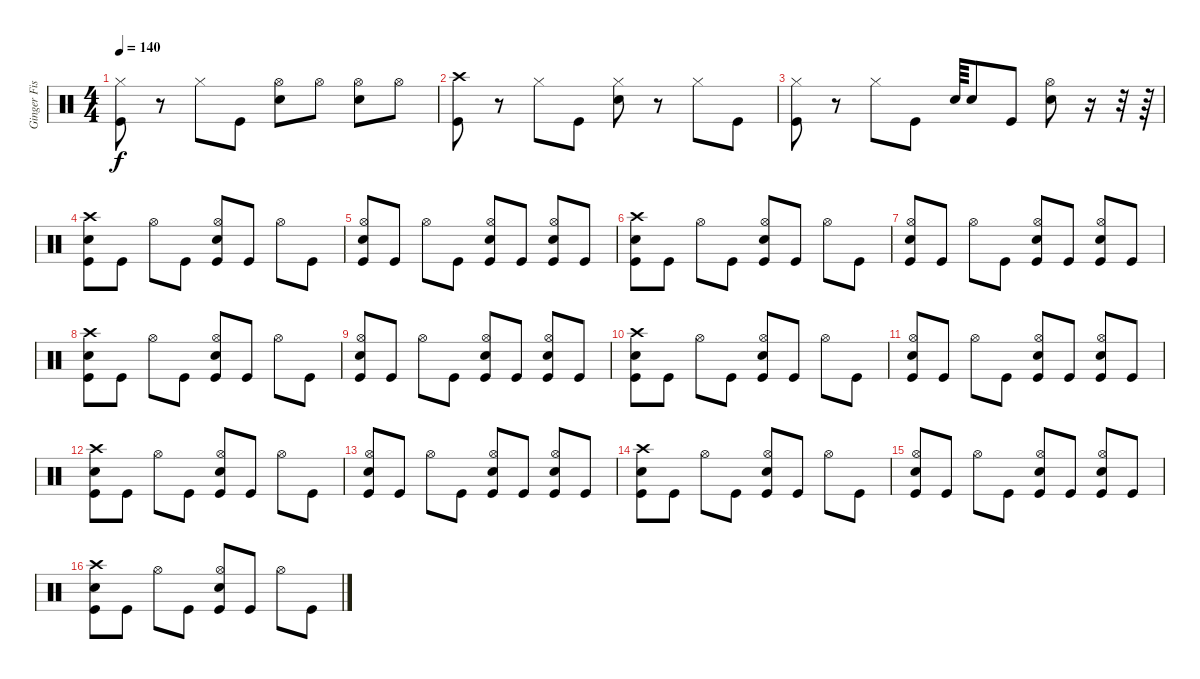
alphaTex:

\track ("Ginger Fish" "Ginger Fis") {instrument percussion}
\staff {score}
\articulation defaults
\ts (4 4)
\tempo 140
\clef neutral
\ks c
("Hi-Hat (closed)" "Kick (hit)").8{dy f} r.8 "Hi-Hat (closed)".8 "Kick (hit)".8 ("Hi-Hat (open)" "Electric Snare (hit)").8 "Hi-Hat (open)".8 ("Hi-Hat (open)" "Electric Snare (hit)").8 "Hi-Hat (open)".8 |
("Crash high (hit)" "Kick (hit)").8 r.8 "Hi-Hat (closed)".8 "Kick (hit)".8 ("Hi-Hat (closed)" "Electric Snare (hit)").8 r.8 "Hi-Hat (closed)".8 "Kick (hit)".8 |
("Hi-Hat (closed)" "Kick (hit)").8 r.8 "Hi-Hat (closed)".8 "Kick (hit)".8 "Electric Snare (hit)".64 "Electric Snare (hit)".8 "Kick (hit)".8 ("Hi-Hat (open)" "Electric Snare (hit)").8 r.16 r.32 r.64 |
("Crash high (hit)" "Electric Snare (hit)" "Kick (hit)").8 "Kick (hit)".8 "Hi-Hat (open)".8 "Kick (hit)".8 ("Hi-Hat (open)" "Electric Snare (hit)" "Kick (hit)").8 "Kick (hit)".8 "Hi-Hat (open)".8 "Kick (hit)".8 |
("Hi-Hat (open)" "Electric Snare (hit)" "Kick (hit)").8 "Kick (hit)".8 "Hi-Hat (open)".8 "Kick (hit)".8 ("Hi-Hat (open)" "Electric Snare (hit)" "Kick (hit)").8 "Kick (hit)".8 ("Hi-Hat (open)" "Electric Snare (hit)" "Kick (hit)").8 "Kick (hit)".8 |
("Crash high (hit)" "Electric Snare (hit)" "Kick (hit)").8 "Kick (hit)".8 "Hi-Hat (open)".8 "Kick (hit)".8 ("Hi-Hat (open)" "Electric Snare (hit)" "Kick (hit)").8 "Kick (hit)".8 "Hi-Hat (open)".8 "Kick (hit)".8 |
("Hi-Hat (open)" "Electric Snare (hit)" "Kick (hit)").8 "Kick (hit)".8 "Hi-Hat (open)".8 "Kick (hit)".8 ("Hi-Hat (open)" "Electric Snare (hit)" "Kick (hit)").8 "Kick (hit)".8 ("Hi-Hat (open)" "Electric Snare (hit)" "Kick (hit)").8 "Kick (hit)".8 |
("Crash high (hit)" "Electric Snare (hit)" "Kick (hit)").8 "Kick (hit)".8 "Hi-Hat (open)".8 "Kick (hit)".8 ("Hi-Hat (open)" "Electric Snare (hit)" "Kick (hit)").8 "Kick (hit)".8 "Hi-Hat (open)".8 "Kick (hit)".8 |
("Hi-Hat (open)" "Electric Snare (hit)" "Kick (hit)").8 "Kick (hit)".8 "Hi-Hat (open)".8 "Kick (hit)".8 ("Hi-Hat (open)" "Electric Snare (hit)" "Kick (hit)").8 "Kick (hit)".8 ("Hi-Hat (open)" "Electric Snare (hit)" "Kick (hit)").8 "Kick (hit)".8 |
("Crash high (hit)" "Electric Snare (hit)" "Kick (hit)").8 "Kick (hit)".8 "Hi-Hat (open)".8 "Kick (hit)".8 ("Hi-Hat (open)" "Electric Snare (hit)" "Kick (hit)").8 "Kick (hit)".8 "Hi-Hat (open)".8 "Kick (hit)".8 |
("Hi-Hat (open)" "Electric Snare (hit)" "Kick (hit)").8 "Kick (hit)".8 "Hi-Hat (open)".8 "Kick (hit)".8 ("Hi-Hat (open)" "Electric Snare (hit)" "Kick (hit)").8 "Kick (hit)".8 ("Hi-Hat (open)" "Electric Snare (hit)" "Kick (hit)").8 "Kick (hit)".8 |
("Crash high (hit)" "Electric Snare (hit)" "Kick (hit)").8 "Kick (hit)".8 "Hi-Hat (open)".8 "Kick (hit)".8 ("Hi-Hat (open)" "Electric Snare (hit)" "Kick (hit)").8 "Kick (hit)".8 "Hi-Hat (open)".8 "Kick (hit)".8 |
("Hi-Hat (open)" "Electric Snare (hit)" "Kick (hit)").8 "Kick (hit)".8 "Hi-Hat (open)".8 "Kick (hit)".8 ("Hi-Hat (open)" "Electric Snare (hit)" "Kick (hit)").8 "Kick (hit)".8 ("Hi-Hat (open)" "Electric Snare (hit)" "Kick (hit)").8 "Kick (hit)".8 |
("Crash high (hit)" "Electric Snare (hit)" "Kick (hit)").8 "Kick (hit)".8 "Hi-Hat (open)".8 "Kick (hit)".8 ("Hi-Hat (open)" "Electric Snare (hit)" "Kick (hit)").8 "Kick (hit)".8 "Hi-Hat (open)".8 "Kick (hit)".8 |
("Hi-Hat (open)" "Electric Snare (hit)" "Kick (hit)").8 "Kick (hit)".8 "Hi-Hat (open)".8 "Kick (hit)".8 ("Hi-Hat (open)" "Electric Snare (hit)" "Kick (hit)").8 "Kick (hit)".8 ("Hi-Hat (open)" "Electric Snare (hit)" "Kick (hit)").8 "Kick (hit)".8 |
("Crash high (hit)" "Electric Snare (hit)" "Kick (hit)").8 "Kick (hit)".8 "Hi-Hat (open)".8 "Kick (hit)".8 ("Hi-Hat (open)" "Electric Snare (hit)" "Kick (hit)").8 "Kick (hit)".8 "Hi-Hat (open)".8 "Kick (hit)".8
